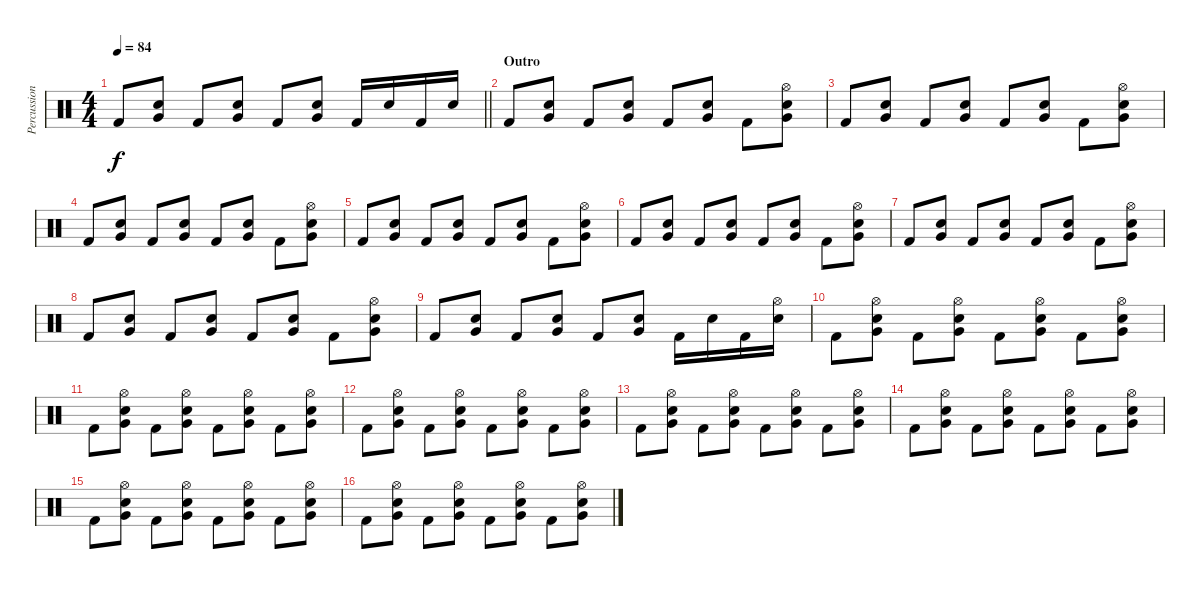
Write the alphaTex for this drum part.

\track ("Percussion" "Percussion") {instrument percussion}
\staff {score}
\articulation defaults
\ts (4 4)
\tempo 84
\clef neutral
\barLineRight lightlight
\ks c "Kick (hit) 2".8{dy f}
("Very Low Tom (hit)" "Snare (hit) 2").8 "Kick (hit) 2".8 ("Very Low Tom (hit)" "Snare (hit) 2").8 "Kick (hit) 2".8 ("Very Low Tom (hit)" "Snare (hit) 2").8 "Kick (hit) 2".16 "Snare (hit) 2".16 "Kick (hit) 2".16 "Snare (hit) 2".16 |
\section ("" "Outro")
"Kick (hit) 2".8 ("Very Low Tom (hit)" "Snare (hit) 2").8 "Kick (hit) 2".8 ("Very Low Tom (hit)" "Snare (hit) 2").8 "Kick (hit) 2".8 ("Very Low Tom (hit)" "Snare (hit) 2").8 "Kick (hit) 2".8 ("Hi-Hat (open)" "Very Low Tom (hit)" "Snare (hit) 2").8 |
"Kick (hit) 2".8 ("Very Low Tom (hit)" "Snare (hit) 2").8 "Kick (hit) 2".8 ("Very Low Tom (hit)" "Snare (hit) 2").8 "Kick (hit) 2".8 ("Very Low Tom (hit)" "Snare (hit) 2").8 "Kick (hit) 2".8 ("Hi-Hat (open)" "Very Low Tom (hit)" "Snare (hit) 2").8 |
"Kick (hit) 2".8 ("Very Low Tom (hit)" "Snare (hit) 2").8 "Kick (hit) 2".8 ("Very Low Tom (hit)" "Snare (hit) 2").8 "Kick (hit) 2".8 ("Very Low Tom (hit)" "Snare (hit) 2").8 "Kick (hit) 2".8 ("Hi-Hat (open)" "Very Low Tom (hit)" "Snare (hit) 2").8 |
"Kick (hit) 2".8 ("Very Low Tom (hit)" "Snare (hit) 2").8 "Kick (hit) 2".8 ("Very Low Tom (hit)" "Snare (hit) 2").8 "Kick (hit) 2".8 ("Very Low Tom (hit)" "Snare (hit) 2").8 "Kick (hit) 2".8 ("Hi-Hat (open)" "Very Low Tom (hit)" "Snare (hit) 2").8 |
"Kick (hit) 2".8 ("Very Low Tom (hit)" "Snare (hit) 2").8 "Kick (hit) 2".8 ("Very Low Tom (hit)" "Snare (hit) 2").8 "Kick (hit) 2".8 ("Very Low Tom (hit)" "Snare (hit) 2").8 "Kick (hit) 2".8 ("Hi-Hat (open)" "Very Low Tom (hit)" "Snare (hit) 2").8 |
"Kick (hit) 2".8 ("Very Low Tom (hit)" "Snare (hit) 2").8 "Kick (hit) 2".8 ("Very Low Tom (hit)" "Snare (hit) 2").8 "Kick (hit) 2".8 ("Very Low Tom (hit)" "Snare (hit) 2").8 "Kick (hit) 2".8 ("Hi-Hat (open)" "Very Low Tom (hit)" "Snare (hit) 2").8 |
"Kick (hit) 2".8 ("Very Low Tom (hit)" "Snare (hit) 2").8 "Kick (hit) 2".8 ("Very Low Tom (hit)" "Snare (hit) 2").8 "Kick (hit) 2".8 ("Very Low Tom (hit)" "Snare (hit) 2").8 "Kick (hit) 2".8 ("Hi-Hat (open)" "Very Low Tom (hit)" "Snare (hit) 2").8 |
"Kick (hit) 2".8 ("Very Low Tom (hit)" "Snare (hit) 2").8 "Kick (hit) 2".8 ("Very Low Tom (hit)" "Snare (hit) 2").8 "Kick (hit) 2".8 ("Very Low Tom (hit)" "Snare (hit) 2").8 "Kick (hit) 2".16 "Snare (hit) 2".16 "Kick (hit) 2".16 ("Hi-Hat (open)" "Snare (hit) 2").16 |
"Kick (hit) 2".8 ("Hi-Hat (open)" "Very Low Tom (hit)" "Snare (hit) 2").8 "Kick (hit) 2".8 ("Hi-Hat (open)" "Very Low Tom (hit)" "Snare (hit) 2").8 "Kick (hit) 2".8 ("Hi-Hat (open)" "Very Low Tom (hit)" "Snare (hit) 2").8 "Kick (hit) 2".8 ("Hi-Hat (open)" "Very Low Tom (hit)" "Snare (hit) 2").8 |
"Kick (hit) 2".8 ("Hi-Hat (open)" "Very Low Tom (hit)" "Snare (hit) 2").8 "Kick (hit) 2".8 ("Hi-Hat (open)" "Very Low Tom (hit)" "Snare (hit) 2").8 "Kick (hit) 2".8 ("Hi-Hat (open)" "Very Low Tom (hit)" "Snare (hit) 2").8 "Kick (hit) 2".8 ("Hi-Hat (open)" "Very Low Tom (hit)" "Snare (hit) 2").8 |
"Kick (hit) 2".8 ("Hi-Hat (open)" "Very Low Tom (hit)" "Snare (hit) 2").8 "Kick (hit) 2".8 ("Hi-Hat (open)" "Very Low Tom (hit)" "Snare (hit) 2").8 "Kick (hit) 2".8 ("Hi-Hat (open)" "Very Low Tom (hit)" "Snare (hit) 2").8 "Kick (hit) 2".8 ("Hi-Hat (open)" "Very Low Tom (hit)" "Snare (hit) 2").8 |
"Kick (hit) 2".8 ("Hi-Hat (open)" "Very Low Tom (hit)" "Snare (hit) 2").8 "Kick (hit) 2".8 ("Hi-Hat (open)" "Very Low Tom (hit)" "Snare (hit) 2").8 "Kick (hit) 2".8 ("Hi-Hat (open)" "Very Low Tom (hit)" "Snare (hit) 2").8 "Kick (hit) 2".8 ("Hi-Hat (open)" "Very Low Tom (hit)" "Snare (hit) 2").8 |
"Kick (hit) 2".8 ("Hi-Hat (open)" "Very Low Tom (hit)" "Snare (hit) 2").8 "Kick (hit) 2".8 ("Hi-Hat (open)" "Very Low Tom (hit)" "Snare (hit) 2").8 "Kick (hit) 2".8 ("Hi-Hat (open)" "Very Low Tom (hit)" "Snare (hit) 2").8 "Kick (hit) 2".8 ("Hi-Hat (open)" "Very Low Tom (hit)" "Snare (hit) 2").8 |
"Kick (hit) 2".8 ("Hi-Hat (open)" "Very Low Tom (hit)" "Snare (hit) 2").8 "Kick (hit) 2".8 ("Hi-Hat (open)" "Very Low Tom (hit)" "Snare (hit) 2").8 "Kick (hit) 2".8 ("Hi-Hat (open)" "Very Low Tom (hit)" "Snare (hit) 2").8 "Kick (hit) 2".8 ("Hi-Hat (open)" "Very Low Tom (hit)" "Snare (hit) 2").8 |
"Kick (hit) 2".8 ("Hi-Hat (open)" "Very Low Tom (hit)" "Snare (hit) 2").8 "Kick (hit) 2".8 ("Hi-Hat (open)" "Very Low Tom (hit)" "Snare (hit) 2").8 "Kick (hit) 2".8 ("Hi-Hat (open)" "Very Low Tom (hit)" "Snare (hit) 2").8 "Kick (hit) 2".8 ("Hi-Hat (open)" "Very Low Tom (hit)" "Snare (hit) 2").8
